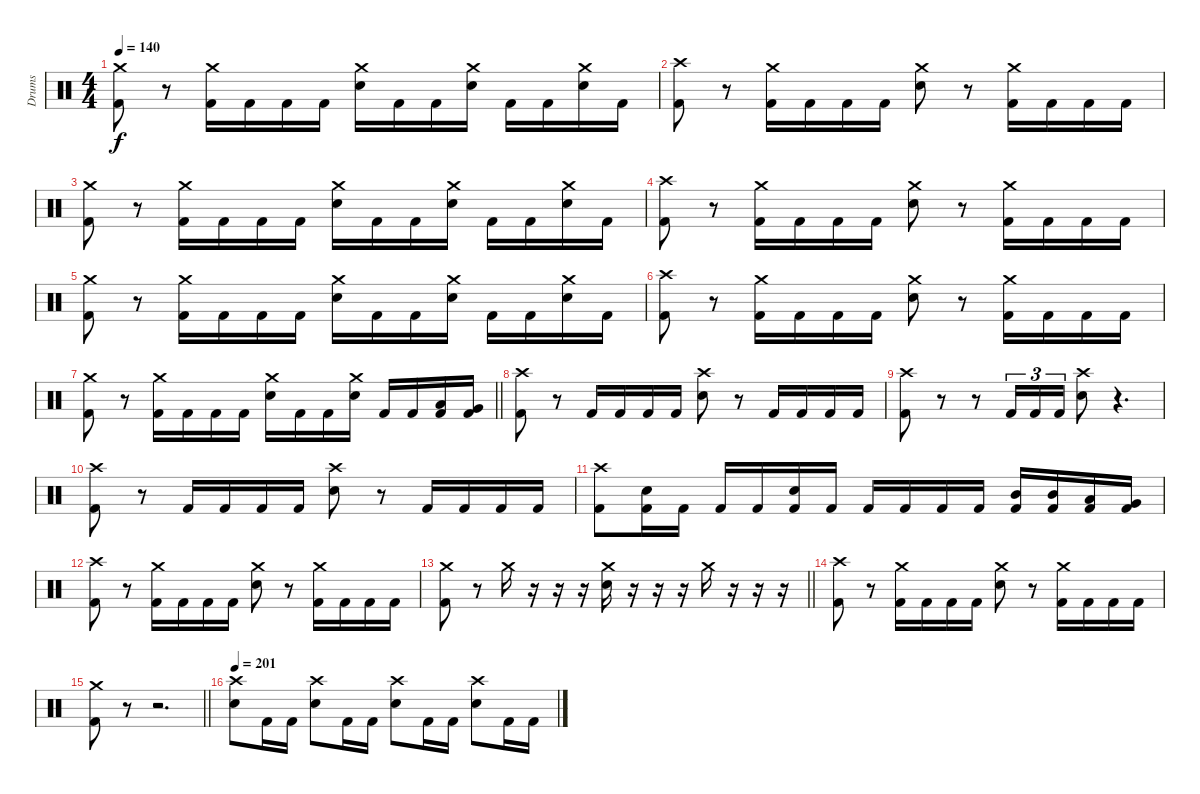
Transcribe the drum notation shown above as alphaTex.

\track ("Drums" "Drums") {instrument percussion}
\staff {score}
\articulation defaults
\ts (4 4)
\tempo 140
\clef neutral
\ks c
("Kick (hit) 2" "Crash medium (hit)").8{dy f} r.8 ("Kick (hit) 2" "Crash medium (hit)").16 "Kick (hit) 2".16 "Kick (hit) 2".16 "Kick (hit) 2".16 ("Snare (hit) 2" "Crash medium (hit)").16 "Kick (hit) 2".16 "Kick (hit) 2".16 ("Snare (hit) 2" "Crash medium (hit)").16 "Kick (hit) 2".16 "Kick (hit) 2".16 ("Snare (hit) 2" "Crash medium (hit)").16 "Kick (hit) 2".16 |
("Kick (hit) 2" "Crash high (hit)").8 r.8 ("Kick (hit) 2" "Crash medium (hit)").16 "Kick (hit) 2".16 "Kick (hit) 2".16 "Kick (hit) 2".16 ("Snare (hit) 2" "Crash medium (hit)").8 r.8 ("Kick (hit) 2" "Crash medium (hit)").16 "Kick (hit) 2".16 "Kick (hit) 2".16 "Kick (hit) 2".16 |
("Kick (hit) 2" "Crash medium (hit)").8 r.8 ("Kick (hit) 2" "Crash medium (hit)").16 "Kick (hit) 2".16 "Kick (hit) 2".16 "Kick (hit) 2".16 ("Snare (hit) 2" "Crash medium (hit)").16 "Kick (hit) 2".16 "Kick (hit) 2".16 ("Snare (hit) 2" "Crash medium (hit)").16 "Kick (hit) 2".16 "Kick (hit) 2".16 ("Snare (hit) 2" "Crash medium (hit)").16 "Kick (hit) 2".16 |
("Kick (hit) 2" "Crash high (hit)").8 r.8 ("Kick (hit) 2" "Crash medium (hit)").16 "Kick (hit) 2".16 "Kick (hit) 2".16 "Kick (hit) 2".16 ("Snare (hit) 2" "Crash medium (hit)").8 r.8 ("Kick (hit) 2" "Crash medium (hit)").16 "Kick (hit) 2".16 "Kick (hit) 2".16 "Kick (hit) 2".16 |
("Kick (hit) 2" "Crash medium (hit)").8 r.8 ("Kick (hit) 2" "Crash medium (hit)").16 "Kick (hit) 2".16 "Kick (hit) 2".16 "Kick (hit) 2".16 ("Snare (hit) 2" "Crash medium (hit)").16 "Kick (hit) 2".16 "Kick (hit) 2".16 ("Snare (hit) 2" "Crash medium (hit)").16 "Kick (hit) 2".16 "Kick (hit) 2".16 ("Snare (hit) 2" "Crash medium (hit)").16 "Kick (hit) 2".16 |
("Kick (hit) 2" "Crash high (hit)").8 r.8 ("Kick (hit) 2" "Crash medium (hit)").16 "Kick (hit) 2".16 "Kick (hit) 2".16 "Kick (hit) 2".16 ("Snare (hit) 2" "Crash medium (hit)").8 r.8 ("Kick (hit) 2" "Crash medium (hit)").16 "Kick (hit) 2".16 "Kick (hit) 2".16 "Kick (hit) 2".16 |
\barLineRight lightlight
("Kick (hit) 2" "Crash medium (hit)").8 r.8 ("Kick (hit) 2" "Crash medium (hit)").16 "Kick (hit) 2".16 "Kick (hit) 2".16 "Kick (hit) 2".16 ("Snare (hit) 2" "Crash medium (hit)").16 "Kick (hit) 2".16 "Kick (hit) 2".16 ("Snare (hit) 2" "Crash medium (hit)").16 "Kick (hit) 2".16 "Kick (hit) 2".16 ("Kick (hit) 2" "Low Tom (hit)").16 ("Kick (hit) 2" "Very Low Tom (hit)").16 |
\section ("" " ")
("Kick (hit) 2" "Crash high (hit)").8 r.8 "Kick (hit) 2".16 "Kick (hit) 2".16 "Kick (hit) 2".16 "Kick (hit) 2".16 ("Snare (hit) 2" "Crash high (hit)").8 r.8 "Kick (hit) 2".16 "Kick (hit) 2".16 "Kick (hit) 2".16 "Kick (hit) 2".16 |
("Kick (hit) 2" "Crash high (hit)").8 r.8 r.8 "Kick (hit) 2".16{tu (3 2)} "Kick (hit) 2".16{tu (3 2)} "Kick (hit) 2".16{tu (3 2)} ("Snare (hit) 2" "Crash high (hit)").8 r.4{d} |
("Kick (hit) 2" "Crash high (hit)").8 r.8 "Kick (hit) 2".16 "Kick (hit) 2".16 "Kick (hit) 2".16 "Kick (hit) 2".16 ("Snare (hit) 2" "Crash high (hit)").8 r.8 "Kick (hit) 2".16 "Kick (hit) 2".16 "Kick (hit) 2".16 "Kick (hit) 2".16 |
("Kick (hit) 2" "Crash high (hit)").8 ("Kick (hit) 2" "Snare (hit) 2").16 "Kick (hit) 2".16 "Kick (hit) 2".16 "Kick (hit) 2".16 ("Kick (hit) 2" "Snare (hit) 2").16 "Kick (hit) 2".16 "Kick (hit) 2".16 "Kick (hit) 2".16 "Kick (hit) 2".16 "Kick (hit) 2".16 ("Kick (hit) 2" "Mid Tom (hit)").16 ("Kick (hit) 2" "Mid Tom (hit)").16 ("Kick (hit) 2" "Low Tom (hit)").16 ("Kick (hit) 2" "Very Low Tom (hit)").16 |
("Kick (hit) 2" "Crash high (hit)").8 r.8 ("Kick (hit) 2" "Crash medium (hit)").16 "Kick (hit) 2".16 "Kick (hit) 2".16 "Kick (hit) 2".16 ("Snare (hit) 2" "Crash medium (hit)").8 r.8 ("Kick (hit) 2" "Crash medium (hit)").16 "Kick (hit) 2".16 "Kick (hit) 2".16 "Kick (hit) 2".16 |
\barLineRight lightlight
("Kick (hit) 2" "Crash medium (hit)").8 r.8 "Crash medium (hit)".16 r.16 r.16 r.16 ("Snare (hit) 2" "Crash medium (hit)").16 r.16 r.16 r.16 "Crash medium (hit)".16 r.16 r.16 r.16 |
("Kick (hit) 2" "Crash high (hit)").8 r.8 ("Kick (hit) 2" "Crash medium (hit)").16 "Kick (hit) 2".16 "Kick (hit) 2".16 "Kick (hit) 2".16 ("Snare (hit) 2" "Crash medium (hit)").8 r.8 ("Kick (hit) 2" "Crash medium (hit)").16 "Kick (hit) 2".16 "Kick (hit) 2".16 "Kick (hit) 2".16 |
\barLineRight lightlight
("Kick (hit) 2" "Crash medium (hit)").8 r.8 r.2{d} |
\section ("" " ")
\tempo 201
("Snare (hit) 2" "Crash high (hit)").8 "Kick (hit) 2".16 "Kick (hit) 2".16 ("Snare (hit) 2" "Crash high (hit)").8 "Kick (hit) 2".16 "Kick (hit) 2".16 ("Snare (hit) 2" "Crash high (hit)").8 "Kick (hit) 2".16 "Kick (hit) 2".16 ("Snare (hit) 2" "Crash high (hit)").8 "Kick (hit) 2".16 "Kick (hit) 2".16
